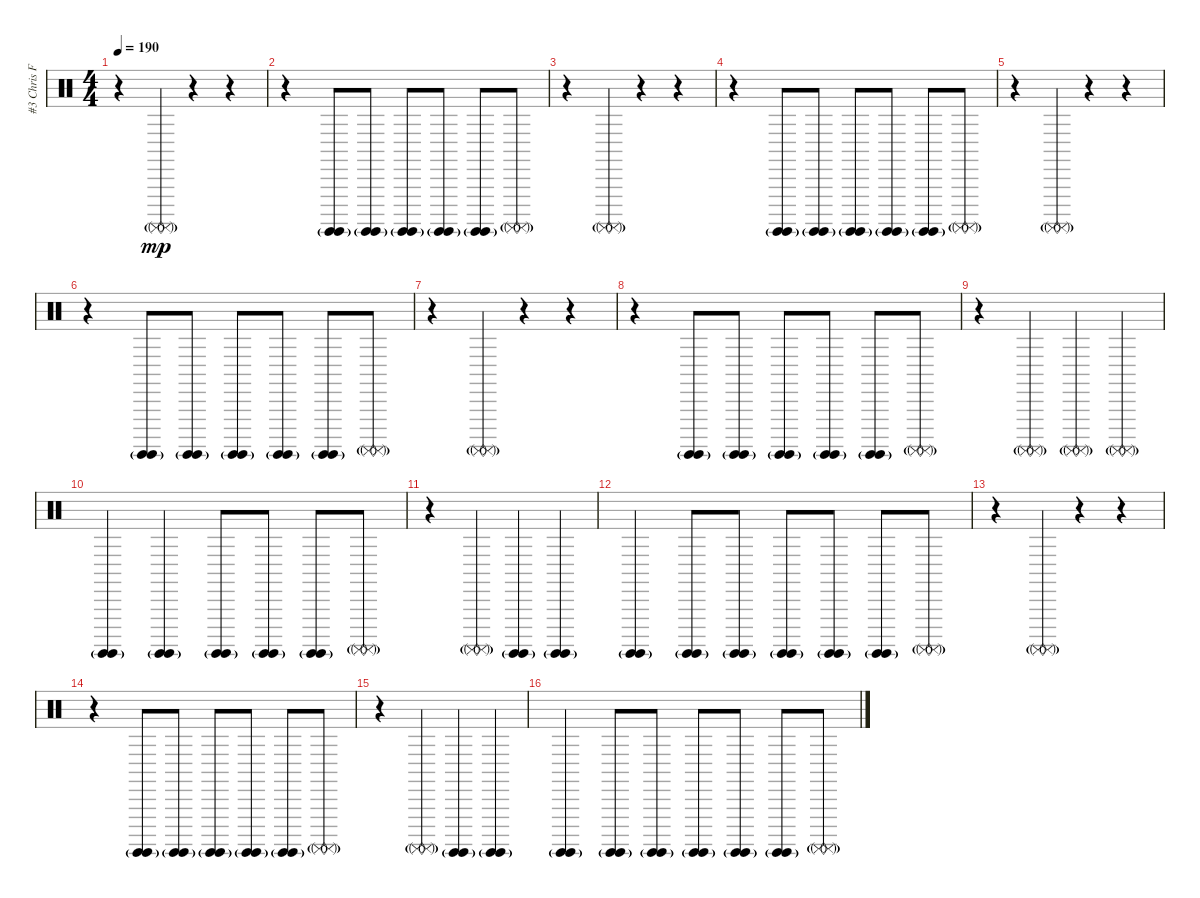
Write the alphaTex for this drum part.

\track ("#3 Chris Fehn" "#3 Chris F") {instrument percussion}
\staff {score}
\articulation defaults
\ts (4 4)
\tempo 190
\clef neutral
\ks c
r.4{dy mp} ("Surdo (mute)"{g} "Surdo (mute)"{g}).4 r.4 r.4 |
r.4 ("Surdo (hit)"{g} "Surdo (hit)"{g}).8 ("Surdo (hit)"{g} "Surdo (hit)"{g}).8 ("Surdo (hit)"{g} "Surdo (hit)"{g}).8 ("Surdo (hit)"{g} "Surdo (hit)"{g}).8 ("Surdo (hit)"{g} "Surdo (hit)"{g}).8 ("Surdo (mute)"{g} "Surdo (mute)"{g}).8 |
r.4 ("Surdo (mute)"{g} "Surdo (mute)"{g}).4 r.4 r.4 |
r.4 ("Surdo (hit)"{g} "Surdo (hit)"{g}).8 ("Surdo (hit)"{g} "Surdo (hit)"{g}).8 ("Surdo (hit)"{g} "Surdo (hit)"{g}).8 ("Surdo (hit)"{g} "Surdo (hit)"{g}).8 ("Surdo (hit)"{g} "Surdo (hit)"{g}).8 ("Surdo (mute)"{g} "Surdo (mute)"{g}).8 |
r.4 ("Surdo (mute)"{g} "Surdo (mute)"{g}).4 r.4 r.4 |
r.4 ("Surdo (hit)"{g} "Surdo (hit)"{g}).8 ("Surdo (hit)"{g} "Surdo (hit)"{g}).8 ("Surdo (hit)"{g} "Surdo (hit)"{g}).8 ("Surdo (hit)"{g} "Surdo (hit)"{g}).8 ("Surdo (hit)"{g} "Surdo (hit)"{g}).8 ("Surdo (mute)"{g} "Surdo (mute)"{g}).8 |
r.4 ("Surdo (mute)"{g} "Surdo (mute)"{g}).4 r.4 r.4 |
r.4 ("Surdo (hit)"{g} "Surdo (hit)"{g}).8 ("Surdo (hit)"{g} "Surdo (hit)"{g}).8 ("Surdo (hit)"{g} "Surdo (hit)"{g}).8 ("Surdo (hit)"{g} "Surdo (hit)"{g}).8 ("Surdo (hit)"{g} "Surdo (hit)"{g}).8 ("Surdo (mute)"{g} "Surdo (mute)"{g}).8 |
r.4 ("Surdo (mute)"{g} "Surdo (mute)"{g}).4 ("Surdo (mute)"{g} "Surdo (mute)"{g}).4 ("Surdo (mute)"{g} "Surdo (mute)"{g}).4 |
("Surdo (hit)"{g} "Surdo (hit)"{g}).4 ("Surdo (hit)"{g} "Surdo (hit)"{g}).4 ("Surdo (hit)"{g} "Surdo (hit)"{g}).8 ("Surdo (hit)"{g} "Surdo (hit)"{g}).8 ("Surdo (hit)"{g} "Surdo (hit)"{g}).8 ("Surdo (mute)"{g} "Surdo (mute)"{g}).8 |
r.4 ("Surdo (mute)"{g} "Surdo (mute)"{g}).4 ("Surdo (hit)"{g} "Surdo (hit)"{g}).4 ("Surdo (hit)"{g} "Surdo (hit)"{g}).4 |
("Surdo (hit)"{g} "Surdo (hit)"{g}).4 ("Surdo (hit)"{g} "Surdo (hit)"{g}).8 ("Surdo (hit)"{g} "Surdo (hit)"{g}).8 ("Surdo (hit)"{g} "Surdo (hit)"{g}).8 ("Surdo (hit)"{g} "Surdo (hit)"{g}).8 ("Surdo (hit)"{g} "Surdo (hit)"{g}).8 ("Surdo (mute)"{g} "Surdo (mute)"{g}).8 |
r.4 ("Surdo (mute)"{g} "Surdo (mute)"{g}).4 r.4 r.4 |
r.4 ("Surdo (hit)"{g} "Surdo (hit)"{g}).8 ("Surdo (hit)"{g} "Surdo (hit)"{g}).8 ("Surdo (hit)"{g} "Surdo (hit)"{g}).8 ("Surdo (hit)"{g} "Surdo (hit)"{g}).8 ("Surdo (hit)"{g} "Surdo (hit)"{g}).8 ("Surdo (mute)"{g} "Surdo (mute)"{g}).8 |
r.4 ("Surdo (mute)"{g} "Surdo (mute)"{g}).4 ("Surdo (hit)"{g} "Surdo (hit)"{g}).4 ("Surdo (hit)"{g} "Surdo (hit)"{g}).4 |
("Surdo (hit)"{g} "Surdo (hit)"{g}).4 ("Surdo (hit)"{g} "Surdo (hit)"{g}).8 ("Surdo (hit)"{g} "Surdo (hit)"{g}).8 ("Surdo (hit)"{g} "Surdo (hit)"{g}).8 ("Surdo (hit)"{g} "Surdo (hit)"{g}).8 ("Surdo (hit)"{g} "Surdo (hit)"{g}).8 ("Surdo (mute)"{g} "Surdo (mute)"{g}).8
